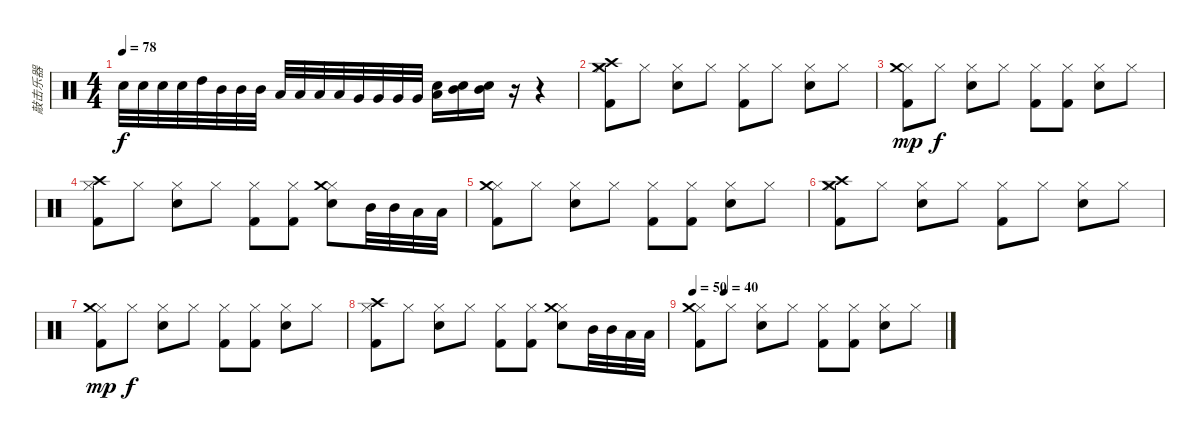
\track ("敲击乐器" "敲击乐器") {instrument percussion}
\staff {score}
\articulation defaults
\ts (4 4)
\tempo 78
\clef neutral
\ks c "Snare (hit) 2".32{dy f} "Snare (hit) 2".32 "Snare (hit) 2".32 "Snare (hit) 2".32 "High Tom (hit)".32 "Mid Tom (hit)".32 "Mid Tom (hit)".32 "Mid Tom (hit)".32 "Low Tom (hit)".32 "Low Tom (hit)".32 "Low Tom (hit)".32 "Low Tom (hit)".32 "Very Low Tom (hit)".32 "Very Low Tom (hit)".32 "Very Low Tom (hit)".32 "Very Low Tom (hit)".32
("Low Tom (hit)" "Snare (hit) 2").16 ("Mid Tom (hit)" "Snare (hit) 2").16 ("Mid Tom (hit)" "Snare (hit) 2").16 r.16 r.4 |
("Hi-Hat (closed)" "Kick (hit) 2" "Crash medium (hit)" "Crash high (hit)").8 "Hi-Hat (closed)".8 ("Hi-Hat (closed)" "Snare (hit) 2").8 "Hi-Hat (closed)".8 ("Hi-Hat (closed)" "Kick (hit) 2").8 "Hi-Hat (closed)".8 ("Hi-Hat (closed)" "Snare (hit) 2").8 "Hi-Hat (closed)".8 |
("Hi-Hat (closed)" "Kick (hit) 2" "Crash medium (hit)").8{dy mp} "Hi-Hat (closed)".8{dy f} ("Hi-Hat (closed)" "Snare (hit) 2").8 "Hi-Hat (closed)".8 ("Hi-Hat (closed)" "Kick (hit) 2").8 ("Hi-Hat (closed)" "Kick (hit) 2").8 ("Hi-Hat (closed)" "Snare (hit) 2").8 "Hi-Hat (closed)".8 |
("Hi-Hat (closed)" "Kick (hit) 2" "Crash high (hit)").8 "Hi-Hat (closed)".8 ("Hi-Hat (closed)" "Snare (hit) 2").8 "Hi-Hat (closed)".8 ("Hi-Hat (closed)" "Kick (hit) 2").8 ("Hi-Hat (closed)" "Kick (hit) 2").8 ("Hi-Hat (closed)" "Snare (hit) 2" "Crash medium (hit)").8 "Mid Tom (hit)".32 "Mid Tom (hit)".32 "Low Tom (hit)".32 "Low Tom (hit)".32 |
("Hi-Hat (closed)" "Kick (hit) 2" "Crash medium (hit)").8 "Hi-Hat (closed)".8 ("Hi-Hat (closed)" "Snare (hit) 2").8 "Hi-Hat (closed)".8 ("Hi-Hat (closed)" "Kick (hit) 2").8 ("Hi-Hat (closed)" "Kick (hit) 2").8 ("Hi-Hat (closed)" "Snare (hit) 2").8 "Hi-Hat (closed)".8 |
("Hi-Hat (closed)" "Kick (hit) 2" "Crash medium (hit)" "Crash high (hit)").8 "Hi-Hat (closed)".8 ("Hi-Hat (closed)" "Snare (hit) 2").8 "Hi-Hat (closed)".8 ("Hi-Hat (closed)" "Kick (hit) 2").8 "Hi-Hat (closed)".8 ("Hi-Hat (closed)" "Snare (hit) 2").8 "Hi-Hat (closed)".8 |
("Hi-Hat (closed)" "Kick (hit) 2" "Crash medium (hit)").8{dy mp} "Hi-Hat (closed)".8{dy f} ("Hi-Hat (closed)" "Snare (hit) 2").8 "Hi-Hat (closed)".8 ("Hi-Hat (closed)" "Kick (hit) 2").8 ("Hi-Hat (closed)" "Kick (hit) 2").8 ("Hi-Hat (closed)" "Snare (hit) 2").8 "Hi-Hat (closed)".8 |
("Hi-Hat (closed)" "Kick (hit) 2" "Crash high (hit)").8 "Hi-Hat (closed)".8 ("Hi-Hat (closed)" "Snare (hit) 2").8 "Hi-Hat (closed)".8 ("Hi-Hat (closed)" "Kick (hit) 2").8 ("Hi-Hat (closed)" "Kick (hit) 2").8 ("Hi-Hat (closed)" "Snare (hit) 2" "Crash medium (hit)").8 "Mid Tom (hit)".32 "Mid Tom (hit)".32 "Low Tom (hit)".32 "Low Tom (hit)".32 |
\tempo 50
\tempo (40 0.125)
("Hi-Hat (closed)" "Kick (hit) 2" "Crash medium (hit)").8 "Hi-Hat (closed)".8 ("Hi-Hat (closed)" "Snare (hit) 2").8 "Hi-Hat (closed)".8 ("Hi-Hat (closed)" "Kick (hit) 2").8 ("Hi-Hat (closed)" "Kick (hit) 2").8 ("Hi-Hat (closed)" "Snare (hit) 2").8 "Hi-Hat (closed)".8
